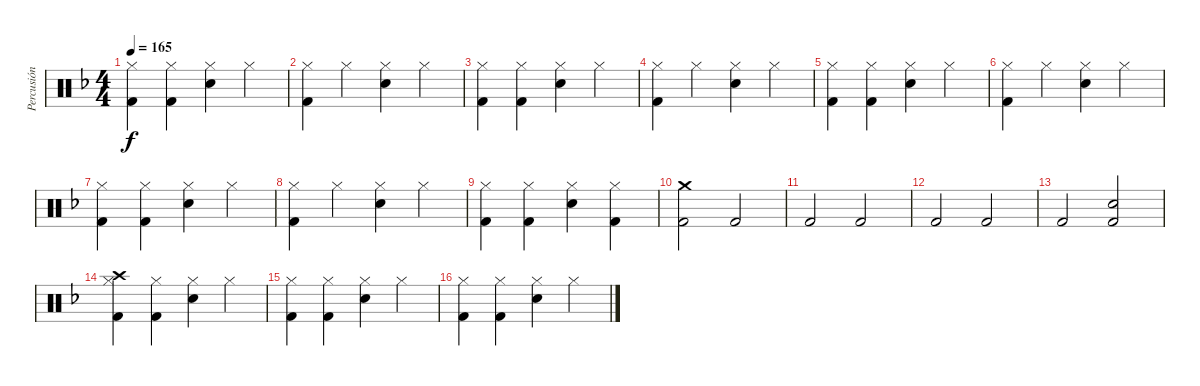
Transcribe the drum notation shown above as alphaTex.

\track ("Percusión" "Percusión") {instrument percussion}
\staff {score}
\articulation defaults
\ts (4 4)
\tempo 165
\clef neutral
\ks f
("Hi-Hat (closed)" "Kick (hit) 2").4{dy f} ("Hi-Hat (closed)" "Kick (hit) 2").4 ("Hi-Hat (closed)" "Electric Snare (hit)").4 "Hi-Hat (closed)".4 |
("Hi-Hat (closed)" "Kick (hit) 2").4 "Hi-Hat (closed)".4 ("Hi-Hat (closed)" "Electric Snare (hit)").4 "Hi-Hat (closed)".4 |
("Hi-Hat (closed)" "Kick (hit) 2").4 ("Hi-Hat (closed)" "Kick (hit) 2").4 ("Hi-Hat (closed)" "Electric Snare (hit)").4 "Hi-Hat (closed)".4 |
("Hi-Hat (closed)" "Kick (hit) 2").4 "Hi-Hat (closed)".4 ("Hi-Hat (closed)" "Electric Snare (hit)").4 "Hi-Hat (closed)".4 |
("Hi-Hat (closed)" "Kick (hit) 2").4 ("Hi-Hat (closed)" "Kick (hit) 2").4 ("Hi-Hat (closed)" "Electric Snare (hit)").4 "Hi-Hat (closed)".4 |
("Hi-Hat (closed)" "Kick (hit) 2").4 "Hi-Hat (closed)".4 ("Hi-Hat (closed)" "Electric Snare (hit)").4 "Hi-Hat (closed)".4 |
("Hi-Hat (closed)" "Kick (hit) 2").4 ("Hi-Hat (closed)" "Kick (hit) 2").4 ("Hi-Hat (closed)" "Electric Snare (hit)").4 "Hi-Hat (closed)".4 |
("Hi-Hat (closed)" "Kick (hit) 2").4 "Hi-Hat (closed)".4 ("Hi-Hat (closed)" "Electric Snare (hit)").4 "Hi-Hat (closed)".4 |
("Hi-Hat (closed)" "Kick (hit) 2").4 ("Hi-Hat (closed)" "Kick (hit) 2").4 ("Hi-Hat (closed)" "Electric Snare (hit)").4 ("Hi-Hat (closed)" "Kick (hit) 2").4 |
("Crash medium (hit)" "Kick (hit) 2").2 "Kick (hit) 2".2 |
"Kick (hit) 2".2 "Kick (hit) 2".2 |
"Kick (hit) 2".2 "Kick (hit) 2".2 |
"Kick (hit) 2".2 ("Kick (hit) 2" "Electric Snare (hit)").2 |
("Crash high (hit)" "Hi-Hat (closed)" "Kick (hit) 2").4 ("Hi-Hat (closed)" "Kick (hit) 2").4 ("Hi-Hat (closed)" "Electric Snare (hit)").4 "Hi-Hat (closed)".4 |
("Hi-Hat (closed)" "Kick (hit) 2").4 ("Hi-Hat (closed)" "Kick (hit) 2").4 ("Hi-Hat (closed)" "Electric Snare (hit)").4 "Hi-Hat (closed)".4 |
("Hi-Hat (closed)" "Kick (hit) 2").4 ("Hi-Hat (closed)" "Kick (hit) 2").4 ("Hi-Hat (closed)" "Electric Snare (hit)").4 "Hi-Hat (closed)".4
